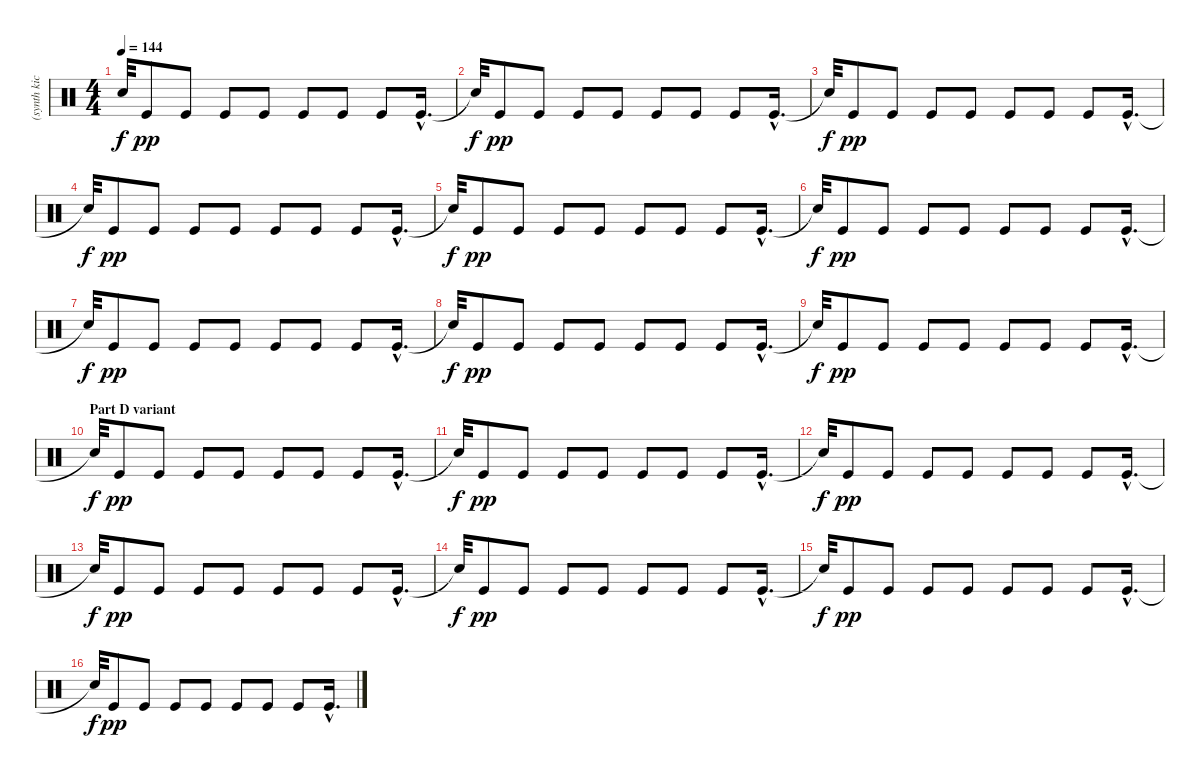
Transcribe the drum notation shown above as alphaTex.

\track ("(synth kick loop reverb)" "(synth kic") {instrument percussion}
\staff {score}
\articulation defaults
\ts (4 4)
\tempo 144
\clef neutral
\ks c "Snare (hit)"{t}.32{dy f} "Kick (hit)".8{dy pp} "Kick (hit)".8 "Kick (hit)".8 "Kick (hit)".8 "Kick (hit)".8 "Kick (hit)".8 "Kick (hit)".8 "Kick (hit)"{hac}.16{d}
|
"Snare (hit)"{t}.32{dy f} "Kick (hit)".8{dy pp} "Kick (hit)".8 "Kick (hit)".8 "Kick (hit)".8 "Kick (hit)".8 "Kick (hit)".8 "Kick (hit)".8 "Kick (hit)"{hac}.16{d} |
"Snare (hit)"{t}.32{dy f} "Kick (hit)".8{dy pp} "Kick (hit)".8 "Kick (hit)".8 "Kick (hit)".8 "Kick (hit)".8 "Kick (hit)".8 "Kick (hit)".8 "Kick (hit)"{hac}.16{d} |
"Snare (hit)"{t}.32{dy f} "Kick (hit)".8{dy pp} "Kick (hit)".8 "Kick (hit)".8 "Kick (hit)".8 "Kick (hit)".8 "Kick (hit)".8 "Kick (hit)".8 "Kick (hit)"{hac}.16{d} |
"Snare (hit)"{t}.32{dy f} "Kick (hit)".8{dy pp} "Kick (hit)".8 "Kick (hit)".8 "Kick (hit)".8 "Kick (hit)".8 "Kick (hit)".8 "Kick (hit)".8 "Kick (hit)"{hac}.16{d} |
"Snare (hit)"{t}.32{dy f} "Kick (hit)".8{dy pp} "Kick (hit)".8 "Kick (hit)".8 "Kick (hit)".8 "Kick (hit)".8 "Kick (hit)".8 "Kick (hit)".8 "Kick (hit)"{hac}.16{d} |
"Snare (hit)"{t}.32{dy f} "Kick (hit)".8{dy pp} "Kick (hit)".8 "Kick (hit)".8 "Kick (hit)".8 "Kick (hit)".8 "Kick (hit)".8 "Kick (hit)".8 "Kick (hit)"{hac}.16{d} |
"Snare (hit)"{t}.32{dy f} "Kick (hit)".8{dy pp} "Kick (hit)".8 "Kick (hit)".8 "Kick (hit)".8 "Kick (hit)".8 "Kick (hit)".8 "Kick (hit)".8 "Kick (hit)"{hac}.16{d} |
"Snare (hit)"{t}.32{dy f} "Kick (hit)".8{dy pp} "Kick (hit)".8 "Kick (hit)".8 "Kick (hit)".8 "Kick (hit)".8 "Kick (hit)".8 "Kick (hit)".8 "Kick (hit)"{hac}.16{d} |
\section ("" "Part D variant")
"Snare (hit)"{t}.32{dy f} "Kick (hit)".8{dy pp} "Kick (hit)".8 "Kick (hit)".8 "Kick (hit)".8 "Kick (hit)".8 "Kick (hit)".8 "Kick (hit)".8 "Kick (hit)"{hac}.16{d} |
"Snare (hit)"{t}.32{dy f} "Kick (hit)".8{dy pp} "Kick (hit)".8 "Kick (hit)".8 "Kick (hit)".8 "Kick (hit)".8 "Kick (hit)".8 "Kick (hit)".8 "Kick (hit)"{hac}.16{d} |
"Snare (hit)"{t}.32{dy f} "Kick (hit)".8{dy pp} "Kick (hit)".8 "Kick (hit)".8 "Kick (hit)".8 "Kick (hit)".8 "Kick (hit)".8 "Kick (hit)".8 "Kick (hit)"{hac}.16{d} |
"Snare (hit)"{t}.32{dy f} "Kick (hit)".8{dy pp} "Kick (hit)".8 "Kick (hit)".8 "Kick (hit)".8 "Kick (hit)".8 "Kick (hit)".8 "Kick (hit)".8 "Kick (hit)"{hac}.16{d} |
"Snare (hit)"{t}.32{dy f} "Kick (hit)".8{dy pp} "Kick (hit)".8 "Kick (hit)".8 "Kick (hit)".8 "Kick (hit)".8 "Kick (hit)".8 "Kick (hit)".8 "Kick (hit)"{hac}.16{d} |
"Snare (hit)"{t}.32{dy f} "Kick (hit)".8{dy pp} "Kick (hit)".8 "Kick (hit)".8 "Kick (hit)".8 "Kick (hit)".8 "Kick (hit)".8 "Kick (hit)".8 "Kick (hit)"{hac}.16{d} |
"Snare (hit)"{t}.32{dy f} "Kick (hit)".8{dy pp} "Kick (hit)".8 "Kick (hit)".8 "Kick (hit)".8 "Kick (hit)".8 "Kick (hit)".8 "Kick (hit)".8 "Kick (hit)"{hac}.16{d}
